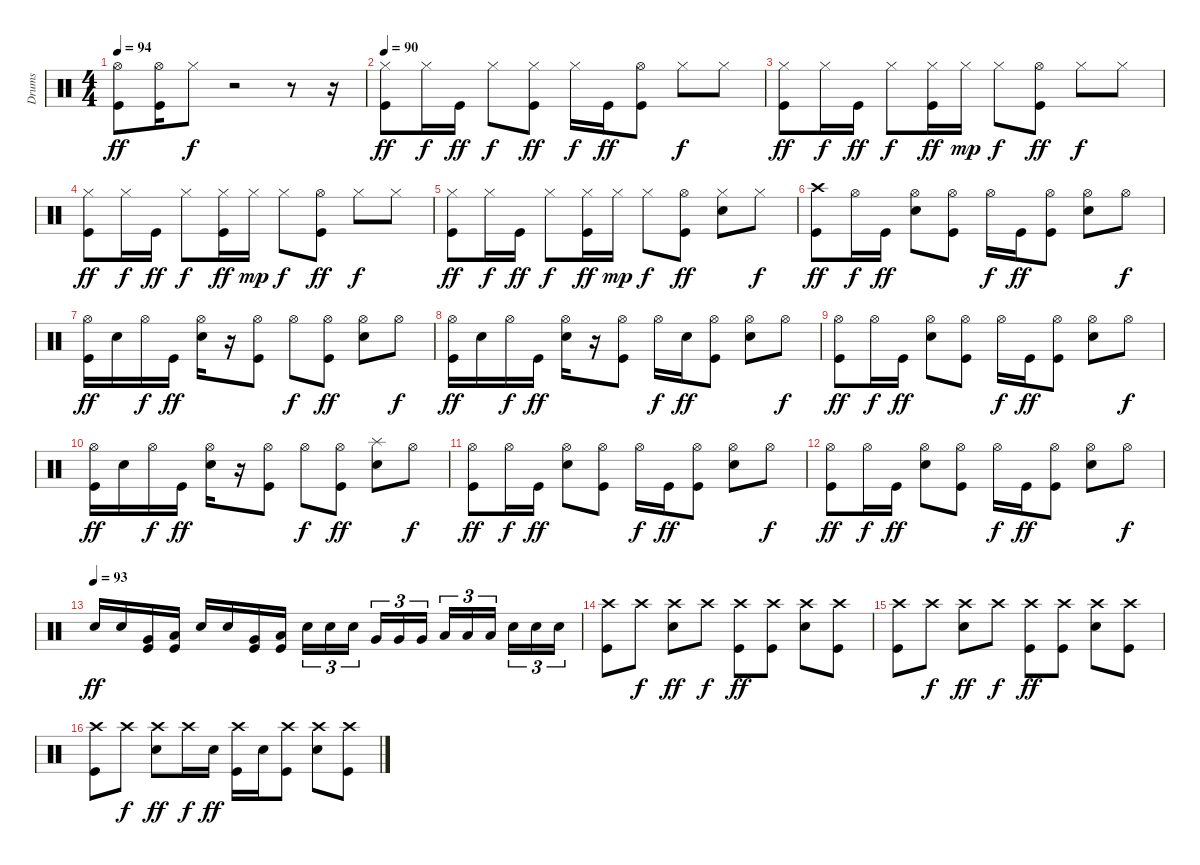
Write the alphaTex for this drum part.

\track ("Drums" "Drums") {instrument percussion}
\staff {score}
\articulation defaults
\ts (4 4)
\tempo 94
\clef neutral
\ks c
("Hi-Hat (open)" "Kick (hit)").8{dy ff} ("Hi-Hat (open)" "Kick (hit)").16 "Hi-Hat (closed)".8{dy f} r.2 r.8 r.16 |
\tempo 90
("Hi-Hat (closed)" "Kick (hit)").8{dy ff} "Hi-Hat (closed)".16{dy f} "Kick (hit)".16{dy ff} "Hi-Hat (closed)".8{dy f} ("Hi-Hat (closed)" "Kick (hit)").8{dy ff} "Hi-Hat (closed)".16{dy f} "Kick (hit)".16{dy ff} ("Hi-Hat (open)" "Kick (hit)").8 "Hi-Hat (closed)".8{dy f} "Hi-Hat (closed)".8 |
("Hi-Hat (closed)" "Kick (hit)").8{dy ff} "Hi-Hat (closed)".16{dy f} "Kick (hit)".16{dy ff} "Hi-Hat (closed)".8{dy f} ("Hi-Hat (closed)" "Kick (hit)").16{dy ff} "Hi-Hat (closed)".16{dy mp} "Hi-Hat (closed)".8{dy f} ("Hi-Hat (open)" "Kick (hit)").8{dy ff} "Hi-Hat (closed)".8{dy f} "Hi-Hat (closed)".8 |
("Hi-Hat (closed)" "Kick (hit)").8{dy ff} "Hi-Hat (closed)".16{dy f} "Kick (hit)".16{dy ff} "Hi-Hat (closed)".8{dy f} ("Hi-Hat (closed)" "Kick (hit)").16{dy ff} "Hi-Hat (closed)".16{dy mp} "Hi-Hat (closed)".8{dy f} ("Hi-Hat (open)" "Kick (hit)").8{dy ff} "Hi-Hat (closed)".8{dy f} "Hi-Hat (closed)".8 |
("Hi-Hat (closed)" "Kick (hit)").8{dy ff} "Hi-Hat (closed)".16{dy f} "Kick (hit)".16{dy ff} "Hi-Hat (closed)".8{dy f} ("Hi-Hat (closed)" "Kick (hit)").16{dy ff} "Hi-Hat (closed)".16{dy mp} "Hi-Hat (closed)".8{dy f} ("Hi-Hat (open)" "Kick (hit)").8{dy ff} ("Hi-Hat (closed)" "Electric Snare (hit)").8 "Hi-Hat (closed)".8{dy f} |
("Crash high (hit)" "Kick (hit)").8{dy ff} "Hi-Hat (open)".16{dy f} "Kick (hit)".16{dy ff} ("Hi-Hat (open)" "Electric Snare (hit)").8 ("Hi-Hat (open)" "Kick (hit)").8 "Hi-Hat (open)".16{dy f} "Kick (hit)".16{dy ff} ("Hi-Hat (open)" "Kick (hit)").8 ("Hi-Hat (open)" "Electric Snare (hit)").8 "Hi-Hat (open)".8{dy f} |
("Hi-Hat (open)" "Kick (hit)").16{dy ff} "Electric Snare (hit)".16 "Hi-Hat (open)".16{dy f} "Kick (hit)".16{dy ff} ("Hi-Hat (open)" "Electric Snare (hit)").16 r.16 ("Hi-Hat (open)" "Kick (hit)").8 "Hi-Hat (open)".8{dy f} ("Hi-Hat (open)" "Kick (hit)").8{dy ff} ("Hi-Hat (open)" "Electric Snare (hit)").8 "Hi-Hat (open)".8{dy f} |
("Hi-Hat (open)" "Kick (hit)").16{dy ff} "Electric Snare (hit)".16 "Hi-Hat (open)".16{dy f} "Kick (hit)".16{dy ff} ("Hi-Hat (open)" "Electric Snare (hit)").16 r.16 ("Hi-Hat (open)" "Kick (hit)").8 "Hi-Hat (open)".16{dy f} "Electric Snare (hit)".16{dy ff} ("Hi-Hat (open)" "Kick (hit)").8 ("Hi-Hat (open)" "Electric Snare (hit)").8 "Hi-Hat (open)".8{dy f} |
("Hi-Hat (open)" "Kick (hit)").8{dy ff} "Hi-Hat (open)".16{dy f} "Kick (hit)".16{dy ff} ("Hi-Hat (open)" "Electric Snare (hit)").8 ("Hi-Hat (open)" "Kick (hit)").8 "Hi-Hat (open)".16{dy f} "Kick (hit)".16{dy ff} ("Hi-Hat (open)" "Kick (hit)").8 ("Hi-Hat (open)" "Electric Snare (hit)").8 "Hi-Hat (open)".8{dy f} |
("Hi-Hat (open)" "Kick (hit)").16{dy ff} "Electric Snare (hit)".16 "Hi-Hat (open)".16{dy f} "Kick (hit)".16{dy ff} ("Hi-Hat (open)" "Electric Snare (hit)").16 r.16 ("Hi-Hat (open)" "Kick (hit)").8 "Hi-Hat (open)".8{dy f} ("Hi-Hat (open)" "Kick (hit)").8{dy ff} ("Splash (hit)" "Electric Snare (hit)").8 "Hi-Hat (open)".8{dy f} |
("Hi-Hat (open)" "Kick (hit)").8{dy ff} "Hi-Hat (open)".16{dy f} "Kick (hit)".16{dy ff} ("Hi-Hat (open)" "Electric Snare (hit)").8 ("Hi-Hat (open)" "Kick (hit)").8 "Hi-Hat (open)".16{dy f} "Kick (hit)".16{dy ff} ("Hi-Hat (open)" "Kick (hit)").8 ("Hi-Hat (open)" "Electric Snare (hit)").8 "Hi-Hat (open)".8{dy f} |
("Hi-Hat (open)" "Kick (hit)").8{dy ff} "Hi-Hat (open)".16{dy f} "Kick (hit)".16{dy ff} ("Hi-Hat (open)" "Electric Snare (hit)").8 ("Hi-Hat (open)" "Kick (hit)").8 "Hi-Hat (open)".16{dy f} "Kick (hit)".16{dy ff} ("Hi-Hat (open)" "Kick (hit)").8 ("Hi-Hat (open)" "Electric Snare (hit)").8 "Hi-Hat (open)".8{dy f} |
\tempo (93)
"Electric Snare (hit)".16{dy ff} "Electric Snare (hit)".16 ("Very Low Tom (hit)" "Kick (hit)").16 ("Low Floor Tom (hit)" "Kick (hit)").16 "Electric Snare (hit)".16 "Electric Snare (hit)".16 ("Very Low Tom (hit)" "Kick (hit)").16 ("Low Floor Tom (hit)" "Kick (hit)").16 "Electric Snare (hit)".16{tu (3 2)} "Electric Snare (hit)".16{tu (3 2)} "Electric Snare (hit)".16{tu (3 2) beam splitsecondary} "Very Low Tom (hit)".16{tu (3 2)} "Very Low Tom (hit)".16{tu (3 2)} "Very Low Tom (hit)".16{tu (3 2)} "Low Floor Tom (hit)".16{tu (3 2)} "Low Floor Tom (hit)".16{tu (3 2)} "Low Floor Tom (hit)".16{tu (3 2) beam splitsecondary} "Electric Snare (hit)".16{tu (3 2)} "Electric Snare (hit)".16{tu (3 2)} "Electric Snare (hit)".16{tu (3 2)} |
("Crash high (hit)" "Kick (hit)").8 "Crash high (hit)".8{dy f} ("Crash high (hit)" "Electric Snare (hit)").8{dy ff} "Crash high (hit)".8{dy f} ("Crash high (hit)" "Kick (hit)").8{dy ff} ("Crash high (hit)" "Kick (hit)").8 ("Crash high (hit)" "Electric Snare (hit)").8 ("Crash high (hit)" "Kick (hit)").8 |
("Crash high (hit)" "Kick (hit)").8 "Crash high (hit)".8{dy f} ("Crash high (hit)" "Electric Snare (hit)").8{dy ff} "Crash high (hit)".8{dy f} ("Crash high (hit)" "Kick (hit)").8{dy ff} ("Crash high (hit)" "Kick (hit)").8 ("Crash high (hit)" "Electric Snare (hit)").8 ("Crash high (hit)" "Kick (hit)").8 |
("Crash high (hit)" "Kick (hit)").8 "Crash high (hit)".8{dy f} ("Crash high (hit)" "Electric Snare (hit)").8{dy ff} "Crash high (hit)".16{dy f} "Electric Snare (hit)".16{dy ff} ("Crash high (hit)" "Kick (hit)").16 "Electric Snare (hit)".16 ("Crash high (hit)" "Kick (hit)").8 ("Crash high (hit)" "Electric Snare (hit)").8 ("Crash high (hit)" "Kick (hit)").8
